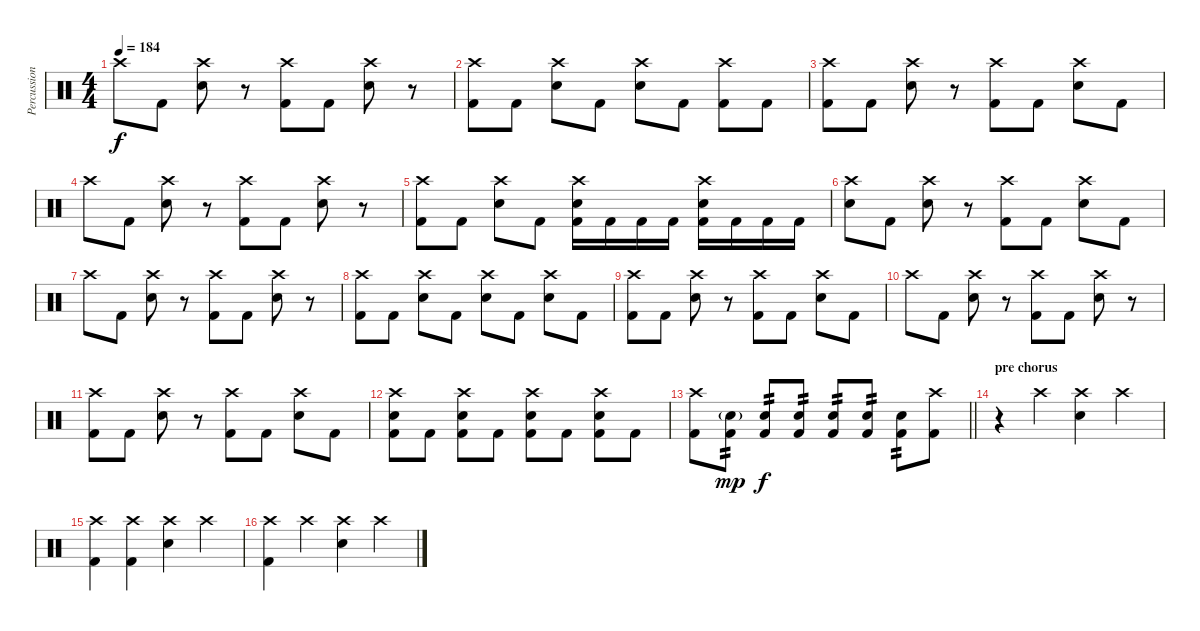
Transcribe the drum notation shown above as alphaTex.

\track ("Percussion" "Percussion") {instrument percussion}
\staff {score}
\articulation defaults
\ts (4 4)
\tempo 184
\clef neutral
\ks c "Crash high (hit)".8{dy f} "Kick (hit) 2".8
("Crash high (hit)" "Electric Snare (hit)").8 r.8 ("Crash high (hit)" "Kick (hit) 2").8 "Kick (hit) 2".8 ("Crash high (hit)" "Electric Snare (hit)").8 r.8 |
("Crash high (hit)" "Kick (hit) 2").8 "Kick (hit) 2".8 ("Crash high (hit)" "Electric Snare (hit)").8 "Kick (hit) 2".8 ("Crash high (hit)" "Electric Snare (hit)").8 "Kick (hit) 2".8 ("Crash high (hit)" "Kick (hit) 2").8 "Kick (hit) 2".8 |
("Crash high (hit)" "Kick (hit) 2").8 "Kick (hit) 2".8 ("Crash high (hit)" "Electric Snare (hit)").8 r.8 ("Crash high (hit)" "Kick (hit) 2").8 "Kick (hit) 2".8 ("Crash high (hit)" "Electric Snare (hit)").8 "Kick (hit) 2".8 |
"Crash high (hit)".8 "Kick (hit) 2".8 ("Crash high (hit)" "Electric Snare (hit)").8 r.8 ("Crash high (hit)" "Kick (hit) 2").8 "Kick (hit) 2".8 ("Crash high (hit)" "Electric Snare (hit)").8 r.8 |
("Crash high (hit)" "Kick (hit) 2").8 "Kick (hit) 2".8 ("Crash high (hit)" "Electric Snare (hit)").8 "Kick (hit) 2".8 ("Crash high (hit)" "Electric Snare (hit)" "Kick (hit) 2").16 "Kick (hit) 2".16 "Kick (hit) 2".16 "Kick (hit) 2".16 ("Crash high (hit)" "Electric Snare (hit)" "Kick (hit) 2").16 "Kick (hit) 2".16 "Kick (hit) 2".16 "Kick (hit) 2".16 |
("Crash high (hit)" "Electric Snare (hit)").8 "Kick (hit) 2".8 ("Crash high (hit)" "Electric Snare (hit)").8 r.8 ("Crash high (hit)" "Kick (hit) 2").8 "Kick (hit) 2".8 ("Crash high (hit)" "Electric Snare (hit)").8 "Kick (hit) 2".8 |
"Crash high (hit)".8 "Kick (hit) 2".8 ("Crash high (hit)" "Electric Snare (hit)").8 r.8 ("Crash high (hit)" "Kick (hit) 2").8 "Kick (hit) 2".8 ("Crash high (hit)" "Electric Snare (hit)").8 r.8 |
("Crash high (hit)" "Kick (hit) 2").8 "Kick (hit) 2".8 ("Crash high (hit)" "Electric Snare (hit)").8 "Kick (hit) 2".8 ("Crash high (hit)" "Electric Snare (hit)").8 "Kick (hit) 2".8 ("Crash high (hit)" "Electric Snare (hit)").8 "Kick (hit) 2".8 |
("Crash high (hit)" "Kick (hit) 2").8 "Kick (hit) 2".8 ("Crash high (hit)" "Electric Snare (hit)").8 r.8 ("Crash high (hit)" "Kick (hit) 2").8 "Kick (hit) 2".8 ("Crash high (hit)" "Electric Snare (hit)").8 "Kick (hit) 2".8 |
"Crash high (hit)".8 "Kick (hit) 2".8 ("Crash high (hit)" "Electric Snare (hit)").8 r.8 ("Crash high (hit)" "Kick (hit) 2").8 "Kick (hit) 2".8 ("Crash high (hit)" "Electric Snare (hit)").8 r.8 |
("Crash high (hit)" "Kick (hit) 2").8 "Kick (hit) 2".8 ("Crash high (hit)" "Electric Snare (hit)").8 r.8 ("Crash high (hit)" "Kick (hit) 2").8 "Kick (hit) 2".8 ("Crash high (hit)" "Electric Snare (hit)").8 "Kick (hit) 2".8 |
("Crash high (hit)" "Electric Snare (hit)" "Kick (hit) 2").8 "Kick (hit) 2".8 ("Crash high (hit)" "Electric Snare (hit)" "Kick (hit) 2").8 "Kick (hit) 2".8 ("Crash high (hit)" "Electric Snare (hit)" "Kick (hit) 2").8 "Kick (hit) 2".8 ("Crash high (hit)" "Electric Snare (hit)" "Kick (hit) 2").8 "Kick (hit) 2".8 |
\barLineRight lightlight
("Crash high (hit)" "Kick (hit) 2").8 ("Electric Snare (hit)"{g} "Kick (hit) 2").8{tp 2 dy mp} ("Electric Snare (hit)" "Kick (hit) 2").8{tp 2 dy f} ("Electric Snare (hit)" "Kick (hit) 2").8{tp 2} ("Electric Snare (hit)" "Kick (hit) 2").8{tp 2} ("Electric Snare (hit)" "Kick (hit) 2").8{tp 2} ("Electric Snare (hit)" "Kick (hit) 2").8{tp 2} ("Crash high (hit)" "Kick (hit) 2").8 |
\section ("" "pre chorus")
r.4 "Crash high (hit)".4 ("Crash high (hit)" "Electric Snare (hit)").4 "Crash high (hit)".4 |
("Crash high (hit)" "Kick (hit) 2").4 ("Crash high (hit)" "Kick (hit) 2").4 ("Crash high (hit)" "Electric Snare (hit)").4 "Crash high (hit)".4 |
("Crash high (hit)" "Kick (hit) 2").4 "Crash high (hit)".4 ("Crash high (hit)" "Electric Snare (hit)").4 "Crash high (hit)".4
